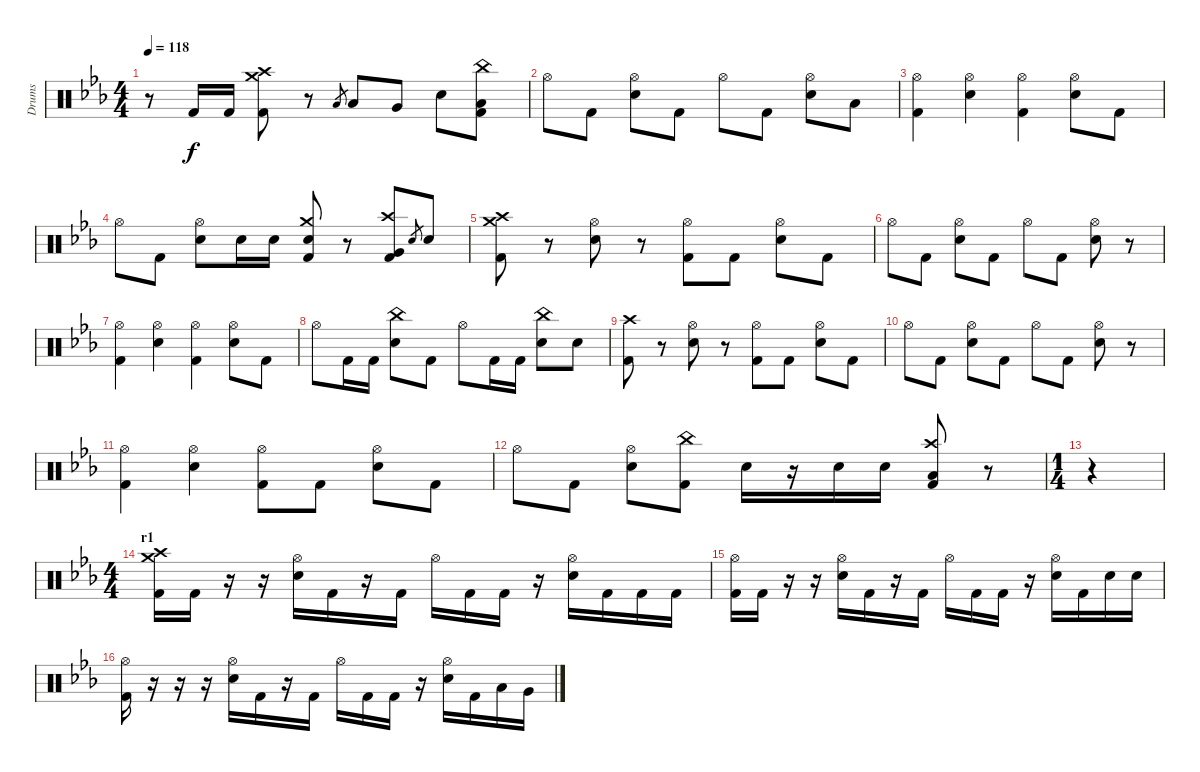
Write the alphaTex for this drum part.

\track ("Drums" "Drums") {instrument percussion}
\staff {score}
\articulation defaults
\ts (4 4)
\tempo 118
\clef neutral
\ks cminor
r.8{dy f} "Kick (hit) 2".16 "Kick (hit) 2".16 ("Kick (hit) 2" "Crash high (hit)" "Crash medium (hit)").8 r.8 "Low Tom (hit)".8{gr} "Low Tom (hit)".8 "Very Low Tom (hit)".8 "Electric Snare (hit)".8 ("Kick (hit) 2" "Low Floor Tom (hit)" "China (hit)").8 |
"Hi-Hat (open)".8 "Kick (hit) 2".8 ("Hi-Hat (open)" "Electric Snare (hit)").8 "Kick (hit) 2".8 "Hi-Hat (open)".8 "Kick (hit) 2".8 ("Hi-Hat (open)" "Electric Snare (hit)").8 "Low Tom (hit)".8 |
("Kick (hit) 2" "Hi-Hat (open)").4 ("Hi-Hat (open)" "Electric Snare (hit)").4 ("Kick (hit) 2" "Hi-Hat (open)").4 ("Hi-Hat (open)" "Electric Snare (hit)").8 "Kick (hit) 2".8 |
"Hi-Hat (open)".8 "Kick (hit) 2".8 ("Hi-Hat (open)" "Electric Snare (hit)").8 "Electric Snare (hit)".16 "Electric Snare (hit)".16 ("Kick (hit) 2" "Electric Snare (hit)" "Crash medium (hit)").8 r.8 ("Kick (hit) 2" "Very Low Tom (hit)" "Crash high (hit)").8 "Electric Snare (hit)".8{gr} "Electric Snare (hit)".8 |
("Kick (hit) 2" "Crash high (hit)" "Crash medium (hit)").8 r.8 ("Hi-Hat (open)" "Electric Snare (hit)").8 r.8 ("Kick (hit) 2" "Hi-Hat (open)").8 "Kick (hit) 2".8 ("Hi-Hat (open)" "Electric Snare (hit)").8 "Kick (hit) 2".8 |
"Hi-Hat (open)".8 "Kick (hit) 2".8 ("Hi-Hat (open)" "Electric Snare (hit)").8 "Kick (hit) 2".8 "Hi-Hat (open)".8 "Kick (hit) 2".8 ("Hi-Hat (open)" "Electric Snare (hit)").8 r.8 |
("Kick (hit) 2" "Hi-Hat (open)").4 ("Hi-Hat (open)" "Electric Snare (hit)").4 ("Kick (hit) 2" "Hi-Hat (open)").4 ("Hi-Hat (open)" "Electric Snare (hit)").8 "Kick (hit) 2".8 |
"Hi-Hat (open)".8 "Kick (hit) 2".16 "Kick (hit) 2".16 ("Electric Snare (hit)" "China (hit)").8 "Kick (hit) 2".8 "Hi-Hat (open)".8 "Kick (hit) 2".16 "Kick (hit) 2".16 ("Electric Snare (hit)" "China (hit)").8 "Electric Snare (hit)".8 |
("Kick (hit) 2" "Crash high (hit)").8 r.8 ("Hi-Hat (open)" "Electric Snare (hit)").8 r.8 ("Kick (hit) 2" "Hi-Hat (open)").8 "Kick (hit) 2".8 ("Hi-Hat (open)" "Electric Snare (hit)").8 "Kick (hit) 2".8 |
"Hi-Hat (open)".8 "Kick (hit) 2".8 ("Hi-Hat (open)" "Electric Snare (hit)").8 "Kick (hit) 2".8 "Hi-Hat (open)".8 "Kick (hit) 2".8 ("Hi-Hat (open)" "Electric Snare (hit)").8 r.8 |
("Kick (hit) 2" "Hi-Hat (open)").4 ("Hi-Hat (open)" "Electric Snare (hit)").4 ("Kick (hit) 2" "Hi-Hat (open)").8 "Kick (hit) 2".8 ("Hi-Hat (open)" "Electric Snare (hit)").8 "Kick (hit) 2".8 |
"Hi-Hat (open)".8 "Kick (hit) 2".8 ("Hi-Hat (open)" "Electric Snare (hit)").8 ("Kick (hit) 2" "China (hit)").8 "Electric Snare (hit)".16 r.16 "Electric Snare (hit)".16 "Electric Snare (hit)".16 ("Kick (hit) 2" "Low Floor Tom (hit)" "Crash high (hit)").8 r.8 |
\ts (1 4)
r.4 |
\ts (4 4)
\section ("" "r1")
("Kick (hit) 2" "Crash medium (hit)" "Crash high (hit)").16 "Kick (hit) 2".16 r.16 r.16 ("Hi-Hat (open)" "Electric Snare (hit)").16 "Kick (hit) 2".16 r.16 "Kick (hit) 2".16 "Hi-Hat (open)".16 "Kick (hit) 2".16 "Kick (hit) 2".16 r.16 ("Hi-Hat (open)" "Electric Snare (hit)").16 "Kick (hit) 2".16 "Kick (hit) 2".16 "Kick (hit) 2".16 |
("Kick (hit) 2" "Hi-Hat (open)").16 "Kick (hit) 2".16 r.16 r.16 ("Hi-Hat (open)" "Electric Snare (hit)").16 "Kick (hit) 2".16 r.16 "Kick (hit) 2".16 "Hi-Hat (open)".16 "Kick (hit) 2".16 "Kick (hit) 2".16 r.16 ("Hi-Hat (open)" "Electric Snare (hit)").16 "Kick (hit) 2".16 "Electric Snare (hit)".16 "Electric Snare (hit)".16 |
("Kick (hit) 2" "Hi-Hat (open)").16 r.16 r.16 r.16 ("Hi-Hat (open)" "Electric Snare (hit)").16 "Kick (hit) 2".16 r.16 "Kick (hit) 2".16 "Hi-Hat (open)".16 "Kick (hit) 2".16 "Kick (hit) 2".16 r.16 ("Hi-Hat (open)" "Electric Snare (hit)").16 "Kick (hit) 2".16 "Low Tom (hit)".16 "Very Low Tom (hit)".16
